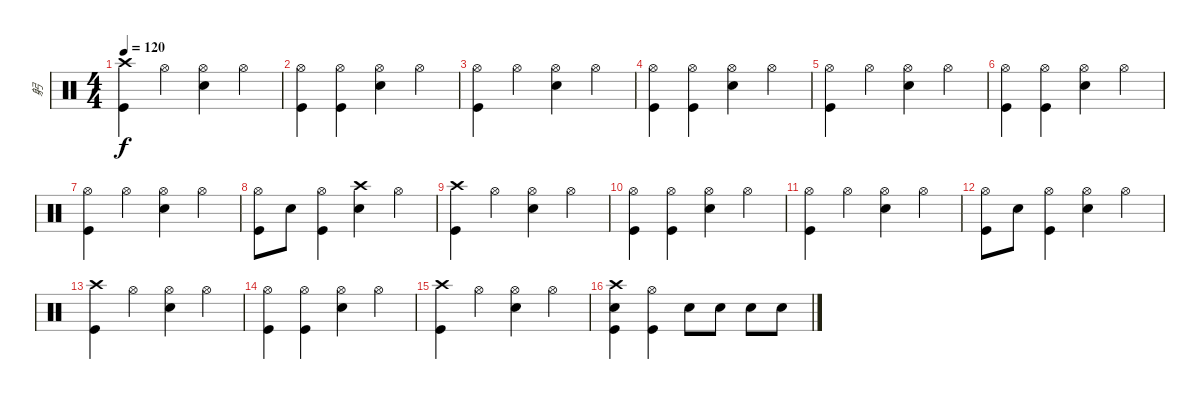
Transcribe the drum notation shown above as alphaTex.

\track ("躬" "躬") {instrument percussion}
\staff {score}
\articulation defaults
\ts (4 4)
\tempo 120
\clef neutral
\ks c
("Crash high (hit)" "Kick (hit)").4{dy f} "Hi-Hat (open)".4 ("Hi-Hat (open)" "Snare (hit) 2").4 "Hi-Hat (open)".4 |
("Hi-Hat (open)" "Kick (hit)").4 ("Hi-Hat (open)" "Kick (hit)").4 ("Hi-Hat (open)" "Snare (hit) 2").4 "Hi-Hat (open)".4 |
("Hi-Hat (open)" "Kick (hit)").4 "Hi-Hat (open)".4 ("Hi-Hat (open)" "Snare (hit) 2").4 "Hi-Hat (open)".4 |
("Hi-Hat (open)" "Kick (hit)").4 ("Hi-Hat (open)" "Kick (hit)").4 ("Hi-Hat (open)" "Snare (hit) 2").4 "Hi-Hat (open)".4 |
("Hi-Hat (open)" "Kick (hit)").4 "Hi-Hat (open)".4 ("Hi-Hat (open)" "Snare (hit) 2").4 "Hi-Hat (open)".4 |
("Hi-Hat (open)" "Kick (hit)").4 ("Hi-Hat (open)" "Kick (hit)").4 ("Hi-Hat (open)" "Snare (hit) 2").4 "Hi-Hat (open)".4 |
("Hi-Hat (open)" "Kick (hit)").4 "Hi-Hat (open)".4 ("Hi-Hat (open)" "Snare (hit) 2").4 "Hi-Hat (open)".4 |
("Hi-Hat (open)" "Kick (hit)").8 "Snare (hit) 2".8 ("Hi-Hat (open)" "Kick (hit)").4 ("Crash high (hit)" "Snare (hit) 2").4 "Hi-Hat (open)".4 |
("Crash high (hit)" "Kick (hit)").4 "Hi-Hat (open)".4 ("Hi-Hat (open)" "Snare (hit) 2").4 "Hi-Hat (open)".4 |
("Hi-Hat (open)" "Kick (hit)").4 ("Hi-Hat (open)" "Kick (hit)").4 ("Hi-Hat (open)" "Snare (hit) 2").4 "Hi-Hat (open)".4 |
("Hi-Hat (open)" "Kick (hit)").4 "Hi-Hat (open)".4 ("Hi-Hat (open)" "Snare (hit) 2").4 "Hi-Hat (open)".4 |
("Hi-Hat (open)" "Kick (hit)").8 "Snare (hit) 2".8 ("Hi-Hat (open)" "Kick (hit)").4 ("Hi-Hat (open)" "Snare (hit) 2").4 "Hi-Hat (open)".4 |
("Crash high (hit)" "Kick (hit)").4 "Hi-Hat (open)".4 ("Hi-Hat (open)" "Snare (hit) 2").4 "Hi-Hat (open)".4 |
("Hi-Hat (open)" "Kick (hit)").4 ("Hi-Hat (open)" "Kick (hit)").4 ("Hi-Hat (open)" "Snare (hit) 2").4 "Hi-Hat (open)".4 |
("Crash high (hit)" "Kick (hit)").4 "Hi-Hat (open)".4 ("Hi-Hat (open)" "Snare (hit) 2").4 "Hi-Hat (open)".4 |
("Crash high (hit)" "Snare (hit) 2" "Kick (hit)").4 ("Hi-Hat (open)" "Kick (hit)").4 "Snare (hit) 2".8 "Snare (hit) 2".8 "Snare (hit) 2".8 "Snare (hit) 2".8
